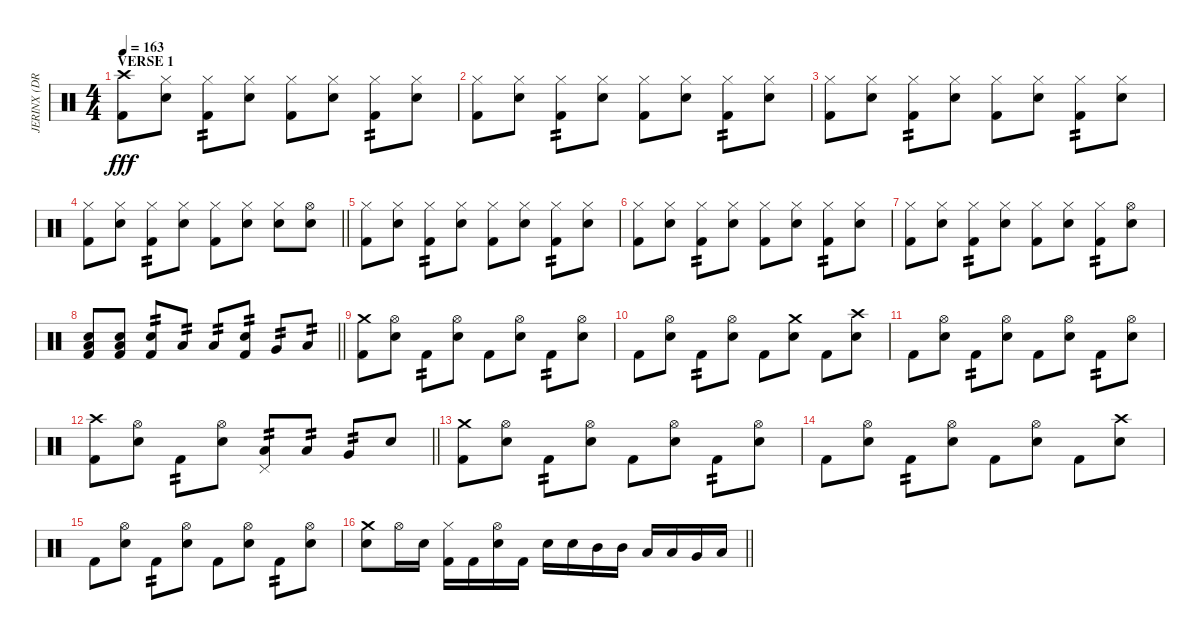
\track ("JERINX (DRUM)" "JERINX (DR") {instrument percussion}
\staff {score}
\articulation defaults
\ts (4 4)
\section ("" "VERSE 1")
\tempo 163
\clef neutral
\ks c
("Kick (hit) 2" "Crash high (hit)").8{dy fff} ("Hi-Hat (closed)" "Snare (hit) 2").8 ("Hi-Hat (closed)" "Kick (hit) 2").8{tp 2} ("Hi-Hat (closed)" "Snare (hit) 2").8 ("Hi-Hat (closed)" "Kick (hit) 2").8 ("Hi-Hat (closed)" "Snare (hit) 2").8 ("Hi-Hat (closed)" "Kick (hit) 2").8{tp 2} ("Hi-Hat (closed)" "Snare (hit) 2").8 |
("Hi-Hat (closed)" "Kick (hit) 2").8 ("Hi-Hat (closed)" "Snare (hit) 2").8 ("Hi-Hat (closed)" "Kick (hit) 2").8{tp 2} ("Hi-Hat (closed)" "Snare (hit) 2").8 ("Hi-Hat (closed)" "Kick (hit) 2").8 ("Hi-Hat (closed)" "Snare (hit) 2").8 ("Hi-Hat (closed)" "Kick (hit) 2").8{tp 2} ("Hi-Hat (closed)" "Snare (hit) 2").8 |
("Hi-Hat (closed)" "Kick (hit) 2").8 ("Hi-Hat (closed)" "Snare (hit) 2").8 ("Hi-Hat (closed)" "Kick (hit) 2").8{tp 2} ("Hi-Hat (closed)" "Snare (hit) 2").8 ("Hi-Hat (closed)" "Kick (hit) 2").8 ("Hi-Hat (closed)" "Snare (hit) 2").8 ("Hi-Hat (closed)" "Kick (hit) 2").8{tp 2} ("Hi-Hat (closed)" "Snare (hit) 2").8 |
\barLineRight lightlight
("Hi-Hat (closed)" "Kick (hit) 2").8 ("Hi-Hat (closed)" "Snare (hit) 2").8 ("Hi-Hat (closed)" "Kick (hit) 2").8{tp 2} ("Hi-Hat (closed)" "Snare (hit) 2").8 ("Hi-Hat (closed)" "Kick (hit) 2").8 ("Hi-Hat (closed)" "Snare (hit) 2").8 ("Hi-Hat (closed)" "Snare (hit) 2").8 ("Hi-Hat (open)" "Snare (hit) 2").8 |
("Hi-Hat (closed)" "Kick (hit) 2").8 ("Hi-Hat (closed)" "Snare (hit) 2").8 ("Hi-Hat (closed)" "Kick (hit) 2").8{tp 2} ("Hi-Hat (closed)" "Snare (hit) 2").8 ("Hi-Hat (closed)" "Kick (hit) 2").8 ("Hi-Hat (closed)" "Snare (hit) 2").8 ("Hi-Hat (closed)" "Kick (hit) 2").8{tp 2} ("Hi-Hat (closed)" "Snare (hit) 2").8 |
("Hi-Hat (closed)" "Kick (hit) 2").8 ("Hi-Hat (closed)" "Snare (hit) 2").8 ("Hi-Hat (closed)" "Kick (hit) 2").8{tp 2} ("Hi-Hat (closed)" "Snare (hit) 2").8 ("Hi-Hat (closed)" "Kick (hit) 2").8 ("Hi-Hat (closed)" "Snare (hit) 2").8 ("Hi-Hat (closed)" "Kick (hit) 2").8{tp 2} ("Hi-Hat (closed)" "Snare (hit) 2").8 |
("Hi-Hat (closed)" "Kick (hit) 2").8 ("Hi-Hat (closed)" "Snare (hit) 2").8 ("Hi-Hat (closed)" "Kick (hit) 2").8{tp 2} ("Hi-Hat (closed)" "Snare (hit) 2").8 ("Hi-Hat (closed)" "Kick (hit) 2").8 ("Hi-Hat (closed)" "Snare (hit) 2").8 ("Hi-Hat (closed)" "Kick (hit) 2").8{tp 2} ("Hi-Hat (open)" "Snare (hit) 2").8 |
\barLineRight lightlight
("Snare (hit) 2" "Kick (hit) 2" "Low Floor Tom (hit)").8 ("Snare (hit) 2" "Kick (hit) 2" "Low Floor Tom (hit)").8 ("Snare (hit) 2" "Kick (hit) 2").8{tp 2} "Low Tom (hit)".8{tp 2} "Low Floor Tom (hit)".8{tp 2} ("Snare (hit) 2" "Kick (hit) 2").8{tp 2} "Very Low Tom (hit)".8{tp 2} "Low Floor Tom (hit)".8{tp 2} |
("Kick (hit) 2" "Crash medium (hit)").8 ("Hi-Hat (open)" "Snare (hit) 2").8 "Kick (hit) 2".8{tp 2} ("Hi-Hat (open)" "Snare (hit) 2").8 "Kick (hit) 2".8 ("Hi-Hat (open)" "Snare (hit) 2").8 "Kick (hit) 2".8{tp 2} ("Hi-Hat (open)" "Snare (hit) 2").8 |
"Kick (hit) 2".8 ("Hi-Hat (open)" "Snare (hit) 2").8 "Kick (hit) 2".8{tp 2} ("Hi-Hat (open)" "Snare (hit) 2").8 "Kick (hit) 2".8 ("Snare (hit) 2" "Crash medium (hit)").8 "Kick (hit) 2".8 ("Snare (hit) 2" "Crash high (hit)").8 |
"Kick (hit) 2".8 ("Hi-Hat (open)" "Snare (hit) 2").8 "Kick (hit) 2".8{tp 2} ("Hi-Hat (open)" "Snare (hit) 2").8 "Kick (hit) 2".8 ("Hi-Hat (open)" "Snare (hit) 2").8 "Kick (hit) 2".8{tp 2} ("Hi-Hat (open)" "Snare (hit) 2").8 |
\barLineRight lightlight
("Kick (hit) 2" "Crash high (hit)").8 ("Hi-Hat (open)" "Snare (hit) 2").8 "Kick (hit) 2".8{tp 2} ("Hi-Hat (open)" "Snare (hit) 2").8 ("Pedal Hi-Hat (hit)" "Low Tom (hit)").8{tp 2} "Low Tom (hit)".8{tp 2} "Very Low Tom (hit)".8{tp 2} "Snare (hit) 2".8 |
("Kick (hit) 2" "Crash medium (hit)").8 ("Hi-Hat (open)" "Snare (hit) 2").8 "Kick (hit) 2".8{tp 2} ("Hi-Hat (open)" "Snare (hit) 2").8 "Kick (hit) 2".8 ("Hi-Hat (open)" "Snare (hit) 2").8 "Kick (hit) 2".8{tp 2} ("Hi-Hat (open)" "Snare (hit) 2").8 |
"Kick (hit) 2".8 ("Hi-Hat (open)" "Snare (hit) 2").8 "Kick (hit) 2".8{tp 2} ("Hi-Hat (open)" "Snare (hit) 2").8 "Kick (hit) 2".8 ("Hi-Hat (open)" "Snare (hit) 2").8 "Kick (hit) 2".8 ("Snare (hit) 2" "Crash high (hit)").8 |
"Kick (hit) 2".8 ("Hi-Hat (open)" "Snare (hit) 2").8 "Kick (hit) 2".8{tp 2} ("Hi-Hat (open)" "Snare (hit) 2").8 "Kick (hit) 2".8 ("Hi-Hat (open)" "Snare (hit) 2").8 "Kick (hit) 2".8{tp 2} ("Hi-Hat (open)" "Snare (hit) 2").8 |
\barLineRight lightlight
("Snare (hit) 2" "Crash medium (hit)").8 "Hi-Hat (open)".16 "Snare (hit) 2".16 ("Hi-Hat (closed)" "Kick (hit) 2").16 "Kick (hit) 2".16 ("Hi-Hat (open)" "Snare (hit) 2").16 "Kick (hit) 2".16 "Snare (hit) 2".16 "Snare (hit) 2".16 "Mid Tom (hit)".16 "Mid Tom (hit)".16 "Low Tom (hit)".16 "Low Tom (hit)".16 "Very Low Tom (hit)".16 "Low Floor Tom (hit)".16
